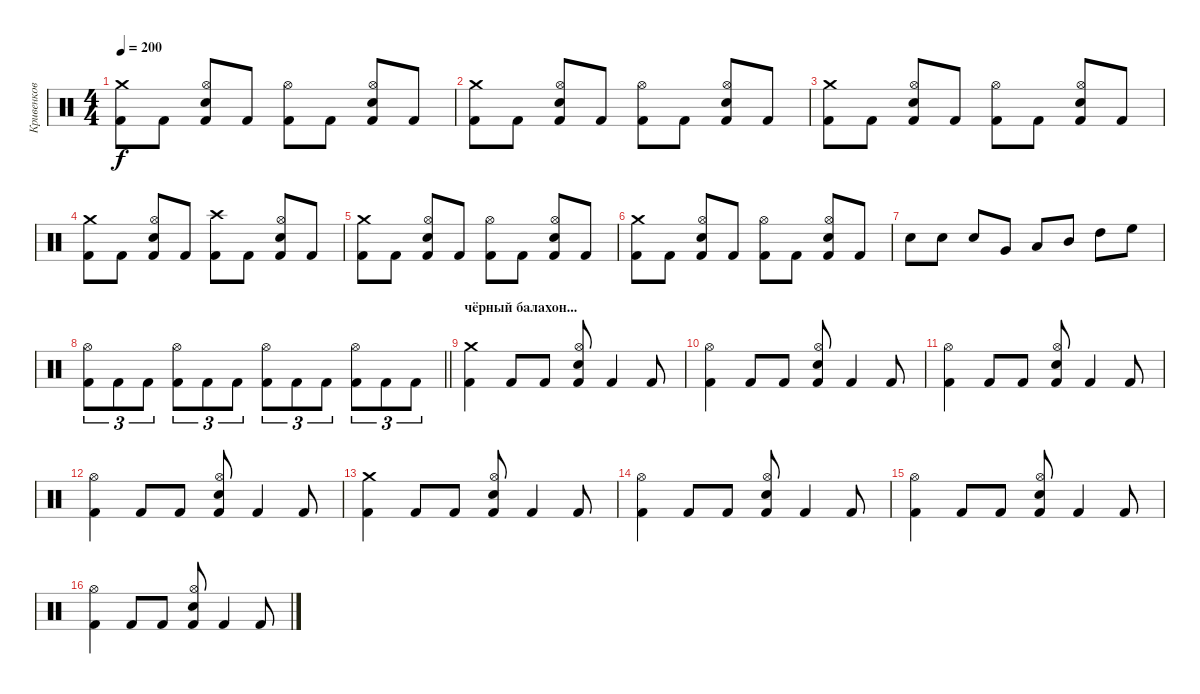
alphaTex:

\track ("Кривенков" "Кривенков") {instrument percussion}
\staff {score}
\articulation defaults
\ts (4 4)
\tempo 200
\clef neutral
\ks c
("Crash medium (hit)" "Kick (hit) 2").8{dy f} "Kick (hit) 2".8 ("Hi-Hat (open)" "Electric Snare (hit)" "Kick (hit) 2").8 "Kick (hit) 2".8 ("Hi-Hat (open)" "Kick (hit) 2").8 "Kick (hit) 2".8 ("Hi-Hat (open)" "Electric Snare (hit)" "Kick (hit) 2").8 "Kick (hit) 2".8 |
("Crash medium (hit)" "Kick (hit) 2").8 "Kick (hit) 2".8 ("Hi-Hat (open)" "Electric Snare (hit)" "Kick (hit) 2").8 "Kick (hit) 2".8 ("Hi-Hat (open)" "Kick (hit) 2").8 "Kick (hit) 2".8 ("Hi-Hat (open)" "Electric Snare (hit)" "Kick (hit) 2").8 "Kick (hit) 2".8 |
("Crash medium (hit)" "Kick (hit) 2").8 "Kick (hit) 2".8 ("Hi-Hat (open)" "Electric Snare (hit)" "Kick (hit) 2").8 "Kick (hit) 2".8 ("Hi-Hat (open)" "Kick (hit) 2").8 "Kick (hit) 2".8 ("Hi-Hat (open)" "Electric Snare (hit)" "Kick (hit) 2").8 "Kick (hit) 2".8 |
("Crash medium (hit)" "Kick (hit) 2").8 "Kick (hit) 2".8 ("Hi-Hat (open)" "Electric Snare (hit)" "Kick (hit) 2").8 "Kick (hit) 2".8 ("Crash high (hit)" "Kick (hit) 2").8 "Kick (hit) 2".8 ("Hi-Hat (open)" "Electric Snare (hit)" "Kick (hit) 2").8 "Kick (hit) 2".8 |
("Crash medium (hit)" "Kick (hit) 2").8 "Kick (hit) 2".8 ("Hi-Hat (open)" "Electric Snare (hit)" "Kick (hit) 2").8 "Kick (hit) 2".8 ("Hi-Hat (open)" "Kick (hit) 2").8 "Kick (hit) 2".8 ("Hi-Hat (open)" "Electric Snare (hit)" "Kick (hit) 2").8 "Kick (hit) 2".8 |
("Crash medium (hit)" "Kick (hit) 2").8 "Kick (hit) 2".8 ("Hi-Hat (open)" "Electric Snare (hit)" "Kick (hit) 2").8 "Kick (hit) 2".8 ("Hi-Hat (open)" "Kick (hit) 2").8 "Kick (hit) 2".8 ("Hi-Hat (open)" "Electric Snare (hit)" "Kick (hit) 2").8 "Kick (hit) 2".8 |
"Electric Snare (hit)".8 "Electric Snare (hit)".8 "Electric Snare (hit)".8 "Very Low Tom (hit)".8 "Low Tom (hit)".8 "Mid Tom (hit)".8 "High Tom (hit)".8 "High Floor Tom (hit)".8 |
\barLineRight lightlight
("Hi-Hat (open)" "Kick (hit) 2").8{tu (3 2)} "Kick (hit) 2".8{tu (3 2)} "Kick (hit) 2".8{tu (3 2)} ("Hi-Hat (open)" "Kick (hit) 2").8{tu (3 2)} "Kick (hit) 2".8{tu (3 2)} "Kick (hit) 2".8{tu (3 2)} ("Hi-Hat (open)" "Kick (hit) 2").8{tu (3 2)} "Kick (hit) 2".8{tu (3 2)} "Kick (hit) 2".8{tu (3 2)} ("Hi-Hat (open)" "Kick (hit) 2").8{tu (3 2)} "Kick (hit) 2".8{tu (3 2)} "Kick (hit) 2".8{tu (3 2)} |
\section ("" "чёрный балахон...")
("Crash medium (hit)" "Kick (hit) 2").4 "Kick (hit) 2".8 "Kick (hit) 2".8 ("Hi-Hat (open)" "Electric Snare (hit)" "Kick (hit) 2").8 "Kick (hit) 2".4 "Kick (hit) 2".8 |
("Hi-Hat (open)" "Kick (hit) 2").4 "Kick (hit) 2".8 "Kick (hit) 2".8 ("Hi-Hat (open)" "Electric Snare (hit)" "Kick (hit) 2").8 "Kick (hit) 2".4 "Kick (hit) 2".8 |
("Hi-Hat (open)" "Kick (hit) 2").4 "Kick (hit) 2".8 "Kick (hit) 2".8 ("Hi-Hat (open)" "Electric Snare (hit)" "Kick (hit) 2").8 "Kick (hit) 2".4 "Kick (hit) 2".8 |
("Hi-Hat (open)" "Kick (hit) 2").4 "Kick (hit) 2".8 "Kick (hit) 2".8 ("Hi-Hat (open)" "Electric Snare (hit)" "Kick (hit) 2").8 "Kick (hit) 2".4 "Kick (hit) 2".8 |
("Crash medium (hit)" "Kick (hit) 2").4 "Kick (hit) 2".8 "Kick (hit) 2".8 ("Hi-Hat (open)" "Electric Snare (hit)" "Kick (hit) 2").8 "Kick (hit) 2".4 "Kick (hit) 2".8 |
("Hi-Hat (open)" "Kick (hit) 2").4 "Kick (hit) 2".8 "Kick (hit) 2".8 ("Hi-Hat (open)" "Electric Snare (hit)" "Kick (hit) 2").8 "Kick (hit) 2".4 "Kick (hit) 2".8 |
("Hi-Hat (open)" "Kick (hit) 2").4 "Kick (hit) 2".8 "Kick (hit) 2".8 ("Hi-Hat (open)" "Electric Snare (hit)" "Kick (hit) 2").8 "Kick (hit) 2".4 "Kick (hit) 2".8 |
("Hi-Hat (open)" "Kick (hit) 2").4 "Kick (hit) 2".8 "Kick (hit) 2".8 ("Hi-Hat (open)" "Electric Snare (hit)" "Kick (hit) 2").8 "Kick (hit) 2".4 "Kick (hit) 2".8
